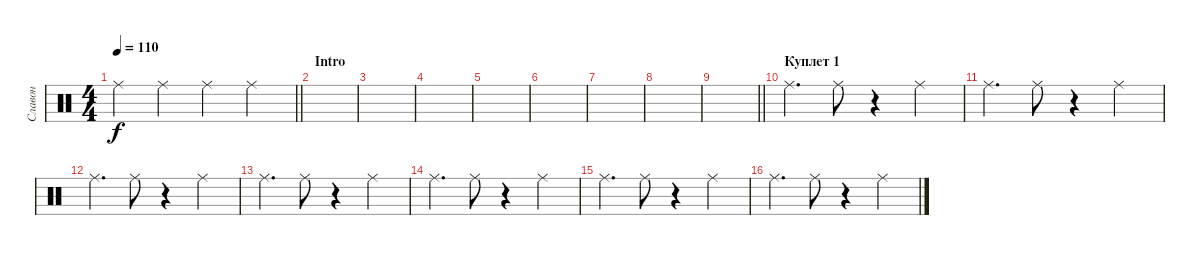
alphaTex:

\track ("Славон" "Славон") {instrument percussion}
\staff {score}
\articulation defaults
\ts (4 4)
\tempo 110
\clef neutral
\barLineRight lightlight
\ks c "Ride (middle)".4{dy f} "Ride (middle)".4 "Ride (middle)".4 "Ride (middle)".4
|
\section ("" "Intro")
|
|
|
|
|
|
|
\barLineRight lightlight
|
\section ("" "Куплет 1")
"Ride (middle)".4{d} "Ride (middle)".8 r.4 "Ride (middle)".4 |
"Ride (middle)".4{d} "Ride (middle)".8 r.4 "Ride (middle)".4 |
"Ride (middle)".4{d} "Ride (middle)".8 r.4 "Ride (middle)".4 |
"Ride (middle)".4{d} "Ride (middle)".8 r.4 "Ride (middle)".4 |
"Ride (middle)".4{d} "Ride (middle)".8 r.4 "Ride (middle)".4 |
"Ride (middle)".4{d} "Ride (middle)".8 r.4 "Ride (middle)".4 |
"Ride (middle)".4{d} "Ride (middle)".8 r.4 "Ride (middle)".4
